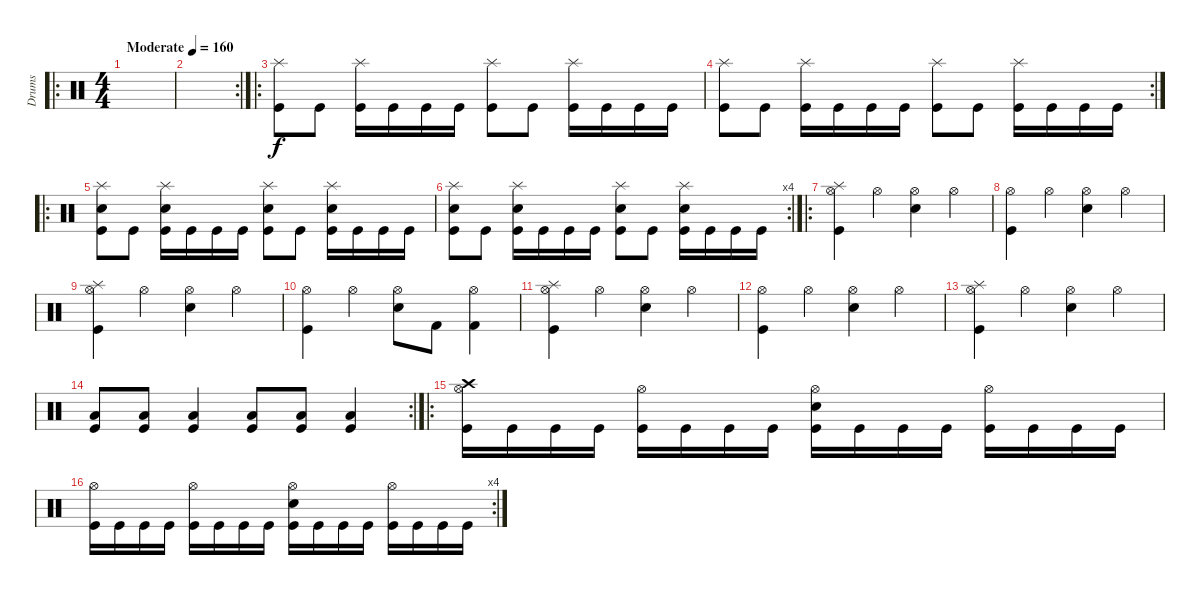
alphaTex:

\track ("Drums" "Drums") {instrument percussion}
\staff {score}
\articulation defaults
\ro
\ts (4 4)
\tempo (160 "Moderate")
\clef neutral
\ks c
|
\rc 2
|
\ro
("Splash (hit)" "Kick (hit)").8 "Kick (hit)".8 ("Splash (hit)" "Kick (hit)").16 "Kick (hit)".16 "Kick (hit)".16 "Kick (hit)".16 ("Splash (hit)" "Kick (hit)").8 "Kick (hit)".8 ("Splash (hit)" "Kick (hit)").16 "Kick (hit)".16 "Kick (hit)".16 "Kick (hit)".16 |
\rc 2
("Splash (hit)" "Kick (hit)").8 "Kick (hit)".8 ("Splash (hit)" "Kick (hit)").16 "Kick (hit)".16 "Kick (hit)".16 "Kick (hit)".16 ("Splash (hit)" "Kick (hit)").8 "Kick (hit)".8 ("Splash (hit)" "Kick (hit)").16 "Kick (hit)".16 "Kick (hit)".16 "Kick (hit)".16 |
\ro
("Splash (hit)" "Snare (hit) 2" "Kick (hit)").8 "Kick (hit)".8 ("Splash (hit)" "Snare (hit) 2" "Kick (hit)").16 "Kick (hit)".16 "Kick (hit)".16 "Kick (hit)".16 ("Splash (hit)" "Snare (hit) 2" "Kick (hit)").8 "Kick (hit)".8 ("Splash (hit)" "Snare (hit) 2" "Kick (hit)").16 "Kick (hit)".16 "Kick (hit)".16 "Kick (hit)".16 |
\rc 4
("Splash (hit)" "Snare (hit) 2" "Kick (hit)").8 "Kick (hit)".8 ("Splash (hit)" "Snare (hit) 2" "Kick (hit)").16 "Kick (hit)".16 "Kick (hit)".16 "Kick (hit)".16 ("Splash (hit)" "Snare (hit) 2" "Kick (hit)").8 "Kick (hit)".8 ("Splash (hit)" "Snare (hit) 2" "Kick (hit)").16 "Kick (hit)".16 "Kick (hit)".16 "Kick (hit)".16 |
\ro
("Splash (hit)" "Hi-Hat (open)" "Kick (hit)").4 "Hi-Hat (open)".4 ("Hi-Hat (open)" "Snare (hit) 2").4 "Hi-Hat (open)".4 |
("Hi-Hat (open)" "Kick (hit)").4 "Hi-Hat (open)".4 ("Hi-Hat (open)" "Snare (hit) 2").4 "Hi-Hat (open)".4 |
("Splash (hit)" "Hi-Hat (open)" "Kick (hit)").4 "Hi-Hat (open)".4 ("Hi-Hat (open)" "Snare (hit) 2").4 "Hi-Hat (open)".4 |
("Hi-Hat (open)" "Kick (hit)").4 "Hi-Hat (open)".4 ("Hi-Hat (open)" "Snare (hit) 2").8 "Kick (hit) 2".8 ("Hi-Hat (open)" "Kick (hit) 2").4 |
("Splash (hit)" "Hi-Hat (open)" "Kick (hit)").4 "Hi-Hat (open)".4 ("Hi-Hat (open)" "Snare (hit) 2").4 "Hi-Hat (open)".4 |
("Hi-Hat (open)" "Kick (hit)").4 "Hi-Hat (open)".4 ("Hi-Hat (open)" "Snare (hit) 2").4 "Hi-Hat (open)".4 |
("Splash (hit)" "Hi-Hat (open)" "Kick (hit)").4 "Hi-Hat (open)".4 ("Hi-Hat (open)" "Snare (hit) 2").4 "Hi-Hat (open)".4 |
\rc 2
("Low Floor Tom (hit)" "Kick (hit)").8 ("Low Floor Tom (hit)" "Kick (hit)").8 ("Low Floor Tom (hit)" "Kick (hit)").4 ("Low Floor Tom (hit)" "Kick (hit)").8 ("Low Floor Tom (hit)" "Kick (hit)").8 ("Low Floor Tom (hit)" "Kick (hit)").4 |
\ro
("Crash high (hit)" "Hi-Hat (open)" "Kick (hit)").16 "Kick (hit)".16 "Kick (hit)".16 "Kick (hit)".16 ("Hi-Hat (open)" "Kick (hit)").16 "Kick (hit)".16 "Kick (hit)".16 "Kick (hit)".16 ("Hi-Hat (open)" "Snare (hit) 2" "Kick (hit)").16 "Kick (hit)".16 "Kick (hit)".16 "Kick (hit)".16 ("Hi-Hat (open)" "Kick (hit)").16 "Kick (hit)".16 "Kick (hit)".16 "Kick (hit)".16 |
\rc 4
("Hi-Hat (open)" "Kick (hit)").16 "Kick (hit)".16 "Kick (hit)".16 "Kick (hit)".16 ("Hi-Hat (open)" "Kick (hit)").16 "Kick (hit)".16 "Kick (hit)".16 "Kick (hit)".16 ("Hi-Hat (open)" "Snare (hit) 2" "Kick (hit)").16 "Kick (hit)".16 "Kick (hit)".16 "Kick (hit)".16 ("Hi-Hat (open)" "Kick (hit)").16 "Kick (hit)".16 "Kick (hit)".16 "Kick (hit)".16
